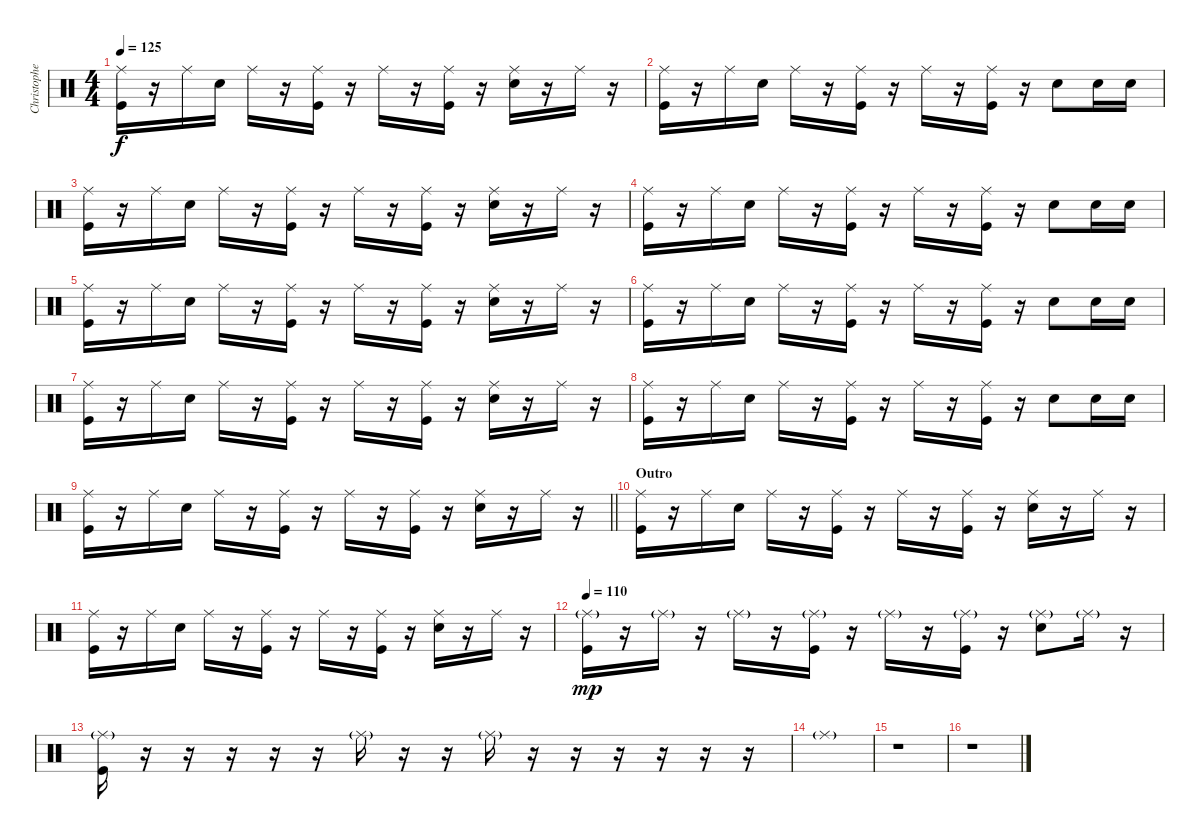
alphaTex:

\track ("Christopher - Drums" "Christophe") {instrument percussion}
\staff {score}
\articulation defaults
\ts (4 4)
\tempo 125
\clef neutral
\ks c
("Ride (middle)" "Kick (hit)").16{dy f} r.16 "Ride (middle)".16 "Snare (hit) 2".16 "Ride (middle)".16 r.16 ("Ride (middle)" "Kick (hit)").16 r.16 "Ride (middle)".16 r.16 ("Ride (middle)" "Kick (hit)").16 r.16 ("Ride (middle)" "Snare (hit) 2").16 r.16 "Ride (middle)".16 r.16 |
("Ride (middle)" "Kick (hit)").16 r.16 "Ride (middle)".16 "Snare (hit) 2".16 "Ride (middle)".16 r.16 ("Ride (middle)" "Kick (hit)").16 r.16 "Ride (middle)".16 r.16 ("Ride (middle)" "Kick (hit)").16 r.16 "Snare (hit) 2".8 "Snare (hit) 2".16 "Snare (hit) 2".16 |
("Ride (middle)" "Kick (hit)").16 r.16 "Ride (middle)".16 "Snare (hit) 2".16 "Ride (middle)".16 r.16 ("Ride (middle)" "Kick (hit)").16 r.16 "Ride (middle)".16 r.16 ("Ride (middle)" "Kick (hit)").16 r.16 ("Ride (middle)" "Snare (hit) 2").16 r.16 "Ride (middle)".16 r.16 |
("Ride (middle)" "Kick (hit)").16 r.16 "Ride (middle)".16 "Snare (hit) 2".16 "Ride (middle)".16 r.16 ("Ride (middle)" "Kick (hit)").16 r.16 "Ride (middle)".16 r.16 ("Ride (middle)" "Kick (hit)").16 r.16 "Snare (hit) 2".8 "Snare (hit) 2".16 "Snare (hit) 2".16 |
("Ride (middle)" "Kick (hit)").16 r.16 "Ride (middle)".16 "Snare (hit) 2".16 "Ride (middle)".16 r.16 ("Ride (middle)" "Kick (hit)").16 r.16 "Ride (middle)".16 r.16 ("Ride (middle)" "Kick (hit)").16 r.16 ("Ride (middle)" "Snare (hit) 2").16 r.16 "Ride (middle)".16 r.16 |
("Ride (middle)" "Kick (hit)").16 r.16 "Ride (middle)".16 "Snare (hit) 2".16 "Ride (middle)".16 r.16 ("Ride (middle)" "Kick (hit)").16 r.16 "Ride (middle)".16 r.16 ("Ride (middle)" "Kick (hit)").16 r.16 "Snare (hit) 2".8 "Snare (hit) 2".16 "Snare (hit) 2".16 |
("Ride (middle)" "Kick (hit)").16 r.16 "Ride (middle)".16 "Snare (hit) 2".16 "Ride (middle)".16 r.16 ("Ride (middle)" "Kick (hit)").16 r.16 "Ride (middle)".16 r.16 ("Ride (middle)" "Kick (hit)").16 r.16 ("Ride (middle)" "Snare (hit) 2").16 r.16 "Ride (middle)".16 r.16 |
("Ride (middle)" "Kick (hit)").16 r.16 "Ride (middle)".16 "Snare (hit) 2".16 "Ride (middle)".16 r.16 ("Ride (middle)" "Kick (hit)").16 r.16 "Ride (middle)".16 r.16 ("Ride (middle)" "Kick (hit)").16 r.16 "Snare (hit) 2".8 "Snare (hit) 2".16 "Snare (hit) 2".16 |
\barLineRight lightlight
("Ride (middle)" "Kick (hit)").16 r.16 "Ride (middle)".16 "Snare (hit) 2".16 "Ride (middle)".16 r.16 ("Ride (middle)" "Kick (hit)").16 r.16 "Ride (middle)".16 r.16 ("Ride (middle)" "Kick (hit)").16 r.16 ("Ride (middle)" "Snare (hit) 2").16 r.16 "Ride (middle)".16 r.16 |
\section ("" "Outro")
("Ride (middle)" "Kick (hit)").16 r.16 "Ride (middle)".16 "Snare (hit) 2".16 "Ride (middle)".16 r.16 ("Ride (middle)" "Kick (hit)").16 r.16 "Ride (middle)".16 r.16 ("Ride (middle)" "Kick (hit)").16 r.16 ("Ride (middle)" "Snare (hit) 2").16 r.16 "Ride (middle)".16 r.16 |
("Ride (middle)" "Kick (hit)").16 r.16 "Ride (middle)".16 "Snare (hit) 2".16 "Ride (middle)".16 r.16 ("Ride (middle)" "Kick (hit)").16 r.16 "Ride (middle)".16 r.16 ("Ride (middle)" "Kick (hit)").16 r.16 ("Ride (middle)" "Snare (hit) 2").16 r.16 "Ride (middle)".16 r.16 |
\tempo 110
("Ride (middle)"{g} "Kick (hit)").16{dy mp} r.16 "Ride (middle)"{g}.16 r.16 "Ride (middle)"{g}.16 r.16 ("Ride (middle)"{g} "Kick (hit)").16 r.16 "Ride (middle)"{g}.16 r.16 ("Ride (middle)"{g} "Kick (hit)").16 r.16 ("Ride (middle)"{g} "Electric Snare (hit)").8 "Ride (middle)"{g}.16 r.16 |
("Ride (middle)"{g} "Kick (hit)").16 r.16 r.16 r.16 r.16 r.16 "Ride (middle)"{g}.16 r.16 r.16 "Ride (middle)"{g}.16 r.16 r.16 r.16 r.16 r.16 r.16 |
"Ride (middle)"{g}.1 |
r.1 |
r.1
